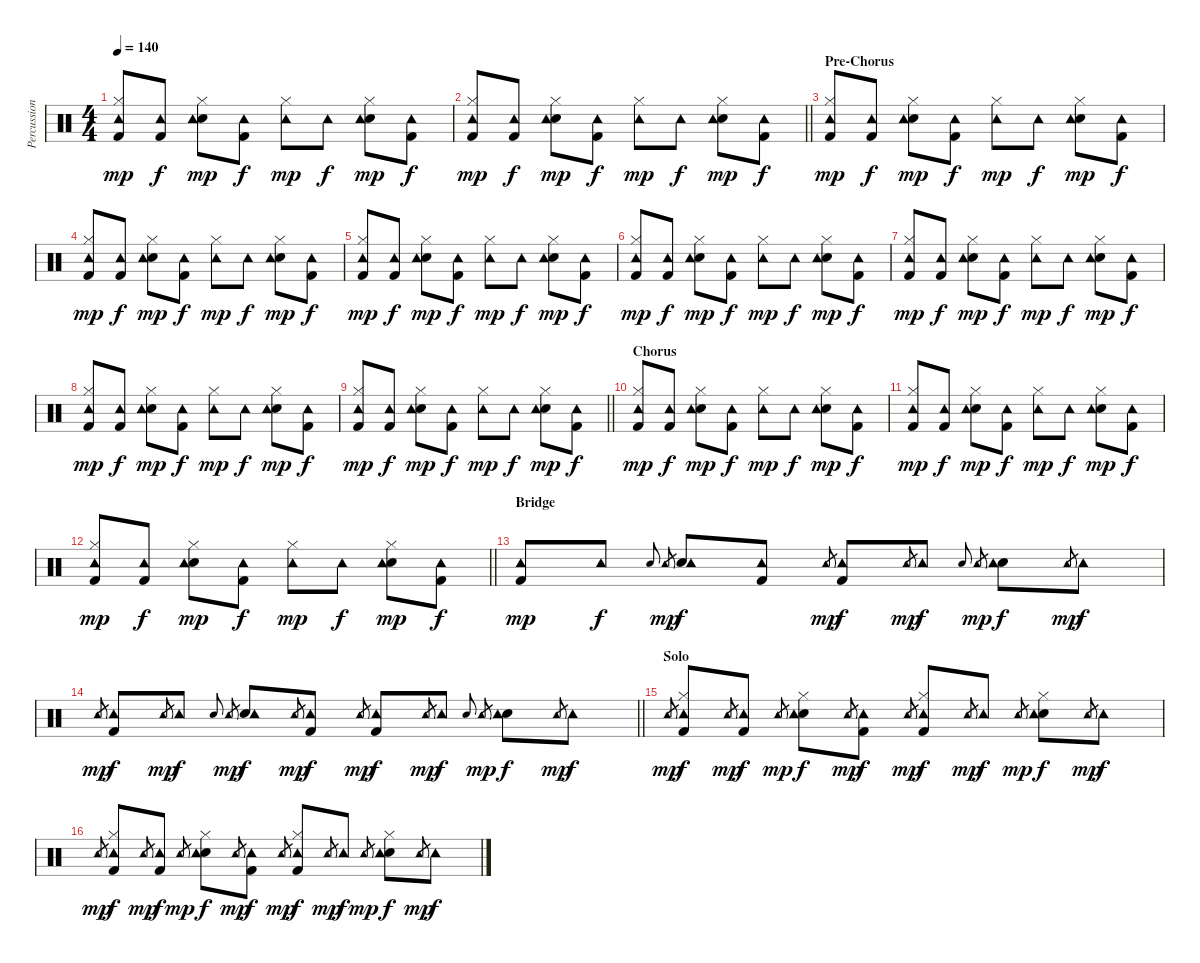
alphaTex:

\track ("Percussion" "Percussion") {instrument percussion}
\staff {score}
\articulation defaults
\ts (4 4)
\tempo 140
\clef neutral
\ks c
("Kick (hit) 2" "Hi-Hat (closed)" "Tambourine (hit)").8{dy mp} ("Kick (hit) 2" "Tambourine (hit)").8{dy f} ("Snare (hit) 2" "Hi-Hat (closed)" "Tambourine (hit)").8{dy mp} ("Kick (hit) 2" "Tambourine (hit)").8{dy f} ("Hi-Hat (closed)" "Tambourine (hit)").8{dy mp} "Tambourine (hit)".8{dy f} ("Snare (hit) 2" "Hi-Hat (closed)" "Tambourine (hit)").8{dy mp} ("Kick (hit) 2" "Tambourine (hit)").8{dy f} |
\barLineRight lightlight
("Kick (hit) 2" "Hi-Hat (closed)" "Tambourine (hit)").8{dy mp} ("Kick (hit) 2" "Tambourine (hit)").8{dy f} ("Snare (hit) 2" "Hi-Hat (closed)" "Tambourine (hit)").8{dy mp} ("Kick (hit) 2" "Tambourine (hit)").8{dy f} ("Hi-Hat (closed)" "Tambourine (hit)").8{dy mp} "Tambourine (hit)".8{dy f} ("Snare (hit) 2" "Hi-Hat (closed)" "Tambourine (hit)").8{dy mp} ("Kick (hit) 2" "Tambourine (hit)").8{dy f} |
\section ("" "Pre-Chorus")
("Kick (hit) 2" "Hi-Hat (closed)" "Tambourine (hit)").8{dy mp} ("Kick (hit) 2" "Tambourine (hit)").8{dy f} ("Snare (hit) 2" "Hi-Hat (closed)" "Tambourine (hit)").8{dy mp} ("Kick (hit) 2" "Tambourine (hit)").8{dy f} ("Hi-Hat (closed)" "Tambourine (hit)").8{dy mp} "Tambourine (hit)".8{dy f} ("Snare (hit) 2" "Hi-Hat (closed)" "Tambourine (hit)").8{dy mp} ("Kick (hit) 2" "Tambourine (hit)").8{dy f} |
("Kick (hit) 2" "Hi-Hat (closed)" "Tambourine (hit)").8{dy mp} ("Kick (hit) 2" "Tambourine (hit)").8{dy f} ("Snare (hit) 2" "Hi-Hat (closed)" "Tambourine (hit)").8{dy mp} ("Kick (hit) 2" "Tambourine (hit)").8{dy f} ("Hi-Hat (closed)" "Tambourine (hit)").8{dy mp} "Tambourine (hit)".8{dy f} ("Snare (hit) 2" "Hi-Hat (closed)" "Tambourine (hit)").8{dy mp} ("Kick (hit) 2" "Tambourine (hit)").8{dy f} |
("Kick (hit) 2" "Hi-Hat (closed)" "Tambourine (hit)").8{dy mp} ("Kick (hit) 2" "Tambourine (hit)").8{dy f} ("Snare (hit) 2" "Hi-Hat (closed)" "Tambourine (hit)").8{dy mp} ("Kick (hit) 2" "Tambourine (hit)").8{dy f} ("Hi-Hat (closed)" "Tambourine (hit)").8{dy mp} "Tambourine (hit)".8{dy f} ("Snare (hit) 2" "Hi-Hat (closed)" "Tambourine (hit)").8{dy mp} ("Kick (hit) 2" "Tambourine (hit)").8{dy f} |
("Kick (hit) 2" "Hi-Hat (closed)" "Tambourine (hit)").8{dy mp} ("Kick (hit) 2" "Tambourine (hit)").8{dy f} ("Snare (hit) 2" "Hi-Hat (closed)" "Tambourine (hit)").8{dy mp} ("Kick (hit) 2" "Tambourine (hit)").8{dy f} ("Hi-Hat (closed)" "Tambourine (hit)").8{dy mp} "Tambourine (hit)".8{dy f} ("Snare (hit) 2" "Hi-Hat (closed)" "Tambourine (hit)").8{dy mp} ("Kick (hit) 2" "Tambourine (hit)").8{dy f} |
("Kick (hit) 2" "Hi-Hat (closed)" "Tambourine (hit)").8{dy mp} ("Kick (hit) 2" "Tambourine (hit)").8{dy f} ("Snare (hit) 2" "Hi-Hat (closed)" "Tambourine (hit)").8{dy mp} ("Kick (hit) 2" "Tambourine (hit)").8{dy f} ("Hi-Hat (closed)" "Tambourine (hit)").8{dy mp} "Tambourine (hit)".8{dy f} ("Snare (hit) 2" "Hi-Hat (closed)" "Tambourine (hit)").8{dy mp} ("Kick (hit) 2" "Tambourine (hit)").8{dy f} |
("Kick (hit) 2" "Hi-Hat (closed)" "Tambourine (hit)").8{dy mp} ("Kick (hit) 2" "Tambourine (hit)").8{dy f} ("Snare (hit) 2" "Hi-Hat (closed)" "Tambourine (hit)").8{dy mp} ("Kick (hit) 2" "Tambourine (hit)").8{dy f} ("Hi-Hat (closed)" "Tambourine (hit)").8{dy mp} "Tambourine (hit)".8{dy f} ("Snare (hit) 2" "Hi-Hat (closed)" "Tambourine (hit)").8{dy mp} ("Kick (hit) 2" "Tambourine (hit)").8{dy f} |
\barLineRight lightlight
("Kick (hit) 2" "Hi-Hat (closed)" "Tambourine (hit)").8{dy mp} ("Kick (hit) 2" "Tambourine (hit)").8{dy f} ("Snare (hit) 2" "Hi-Hat (closed)" "Tambourine (hit)").8{dy mp} ("Kick (hit) 2" "Tambourine (hit)").8{dy f} ("Hi-Hat (closed)" "Tambourine (hit)").8{dy mp} "Tambourine (hit)".8{dy f} ("Snare (hit) 2" "Hi-Hat (closed)" "Tambourine (hit)").8{dy mp} ("Kick (hit) 2" "Tambourine (hit)").8{dy f} |
\section ("" "Chorus")
("Kick (hit) 2" "Hi-Hat (closed)" "Tambourine (hit)").8{dy mp} ("Kick (hit) 2" "Tambourine (hit)").8{dy f} ("Snare (hit) 2" "Hi-Hat (closed)" "Tambourine (hit)").8{dy mp} ("Kick (hit) 2" "Tambourine (hit)").8{dy f} ("Hi-Hat (closed)" "Tambourine (hit)").8{dy mp} "Tambourine (hit)".8{dy f} ("Snare (hit) 2" "Hi-Hat (closed)" "Tambourine (hit)").8{dy mp} ("Kick (hit) 2" "Tambourine (hit)").8{dy f} |
("Kick (hit) 2" "Hi-Hat (closed)" "Tambourine (hit)").8{dy mp} ("Kick (hit) 2" "Tambourine (hit)").8{dy f} ("Snare (hit) 2" "Hi-Hat (closed)" "Tambourine (hit)").8{dy mp} ("Kick (hit) 2" "Tambourine (hit)").8{dy f} ("Hi-Hat (closed)" "Tambourine (hit)").8{dy mp} "Tambourine (hit)".8{dy f} ("Snare (hit) 2" "Hi-Hat (closed)" "Tambourine (hit)").8{dy mp} ("Kick (hit) 2" "Tambourine (hit)").8{dy f} |
\barLineRight lightlight
("Kick (hit) 2" "Hi-Hat (closed)" "Tambourine (hit)").8{dy mp} ("Kick (hit) 2" "Tambourine (hit)").8{dy f} ("Snare (hit) 2" "Hi-Hat (closed)" "Tambourine (hit)").8{dy mp} ("Kick (hit) 2" "Tambourine (hit)").8{dy f} ("Hi-Hat (closed)" "Tambourine (hit)").8{dy mp} "Tambourine (hit)".8{dy f} ("Snare (hit) 2" "Hi-Hat (closed)" "Tambourine (hit)").8{dy mp} ("Kick (hit) 2" "Tambourine (hit)").8{dy f} |
\section ("" "Bridge")
("Kick (hit) 2" "Tambourine (hit)").8{dy mp} "Tambourine (hit)".8{dy f} "Snare (hit) 2".16{gr onbeat} "Tambourine (hit)".16{gr dy mp} ("Snare (hit) 2" "Tambourine (hit)").8{dy f} ("Kick (hit) 2" "Tambourine (hit)").8 "Tambourine (hit)".8{gr dy mp} ("Kick (hit) 2" "Tambourine (hit)").8{dy f} "Tambourine (hit)".8{gr dy mp} "Tambourine (hit)".8{dy f} "Snare (hit) 2".16{gr onbeat} "Tambourine (hit)".16{gr dy mp} ("Snare (hit) 2" "Tambourine (hit)").8{dy f} "Tambourine (hit)".8{gr dy mp} "Tambourine (hit)".8{dy f} |
\barLineRight lightlight "Tambourine (hit)".8{gr dy mp}
("Kick (hit) 2" "Tambourine (hit)").8{dy f} "Tambourine (hit)".8{gr dy mp} "Tambourine (hit)".8{dy f} "Snare (hit) 2".16{gr onbeat} "Tambourine (hit)".16{gr dy mp} ("Snare (hit) 2" "Tambourine (hit)").8{dy f} "Tambourine (hit)".8{gr dy mp} ("Kick (hit) 2" "Tambourine (hit)").8{dy f} "Tambourine (hit)".8{gr dy mp} ("Kick (hit) 2" "Tambourine (hit)").8{dy f} "Tambourine (hit)".8{gr dy mp} "Tambourine (hit)".8{dy f} "Snare (hit) 2".16{gr onbeat} "Tambourine (hit)".16{gr dy mp} ("Snare (hit) 2" "Tambourine (hit)").8{dy f} "Tambourine (hit)".8{gr dy mp} "Tambourine (hit)".8{dy f} |
\section ("" "Solo")
"Tambourine (hit)".8{gr dy mp} ("Kick (hit) 2" "Hi-Hat (closed)" "Tambourine (hit)").8{dy f} "Tambourine (hit)".8{gr dy mp} ("Kick (hit) 2" "Tambourine (hit)").8{dy f} "Tambourine (hit)".8{gr dy mp} ("Snare (hit) 2" "Hi-Hat (closed)" "Tambourine (hit)").8{dy f} "Tambourine (hit)".8{gr dy mp} ("Kick (hit) 2" "Tambourine (hit)").8{dy f} "Tambourine (hit)".8{gr dy mp} ("Kick (hit) 2" "Hi-Hat (closed)" "Tambourine (hit)").8{dy f} "Tambourine (hit)".8{gr dy mp} "Tambourine (hit)".8{dy f} "Tambourine (hit)".8{gr dy mp} ("Snare (hit) 2" "Hi-Hat (closed)" "Tambourine (hit)").8{dy f} "Tambourine (hit)".8{gr dy mp} "Tambourine (hit)".8{dy f} |
"Tambourine (hit)".8{gr dy mp} ("Kick (hit) 2" "Hi-Hat (closed)" "Tambourine (hit)").8{dy f} "Tambourine (hit)".8{gr dy mp} ("Kick (hit) 2" "Tambourine (hit)").8{dy f} "Tambourine (hit)".8{gr dy mp} ("Snare (hit) 2" "Hi-Hat (closed)" "Tambourine (hit)").8{dy f} "Tambourine (hit)".8{gr dy mp} ("Kick (hit) 2" "Tambourine (hit)").8{dy f} "Tambourine (hit)".8{gr dy mp} ("Kick (hit) 2" "Hi-Hat (closed)" "Tambourine (hit)").8{dy f} "Tambourine (hit)".8{gr dy mp} "Tambourine (hit)".8{dy f} "Tambourine (hit)".8{gr dy mp} ("Snare (hit) 2" "Hi-Hat (closed)" "Tambourine (hit)").8{dy f} "Tambourine (hit)".8{gr dy mp} "Tambourine (hit)".8{dy f}
